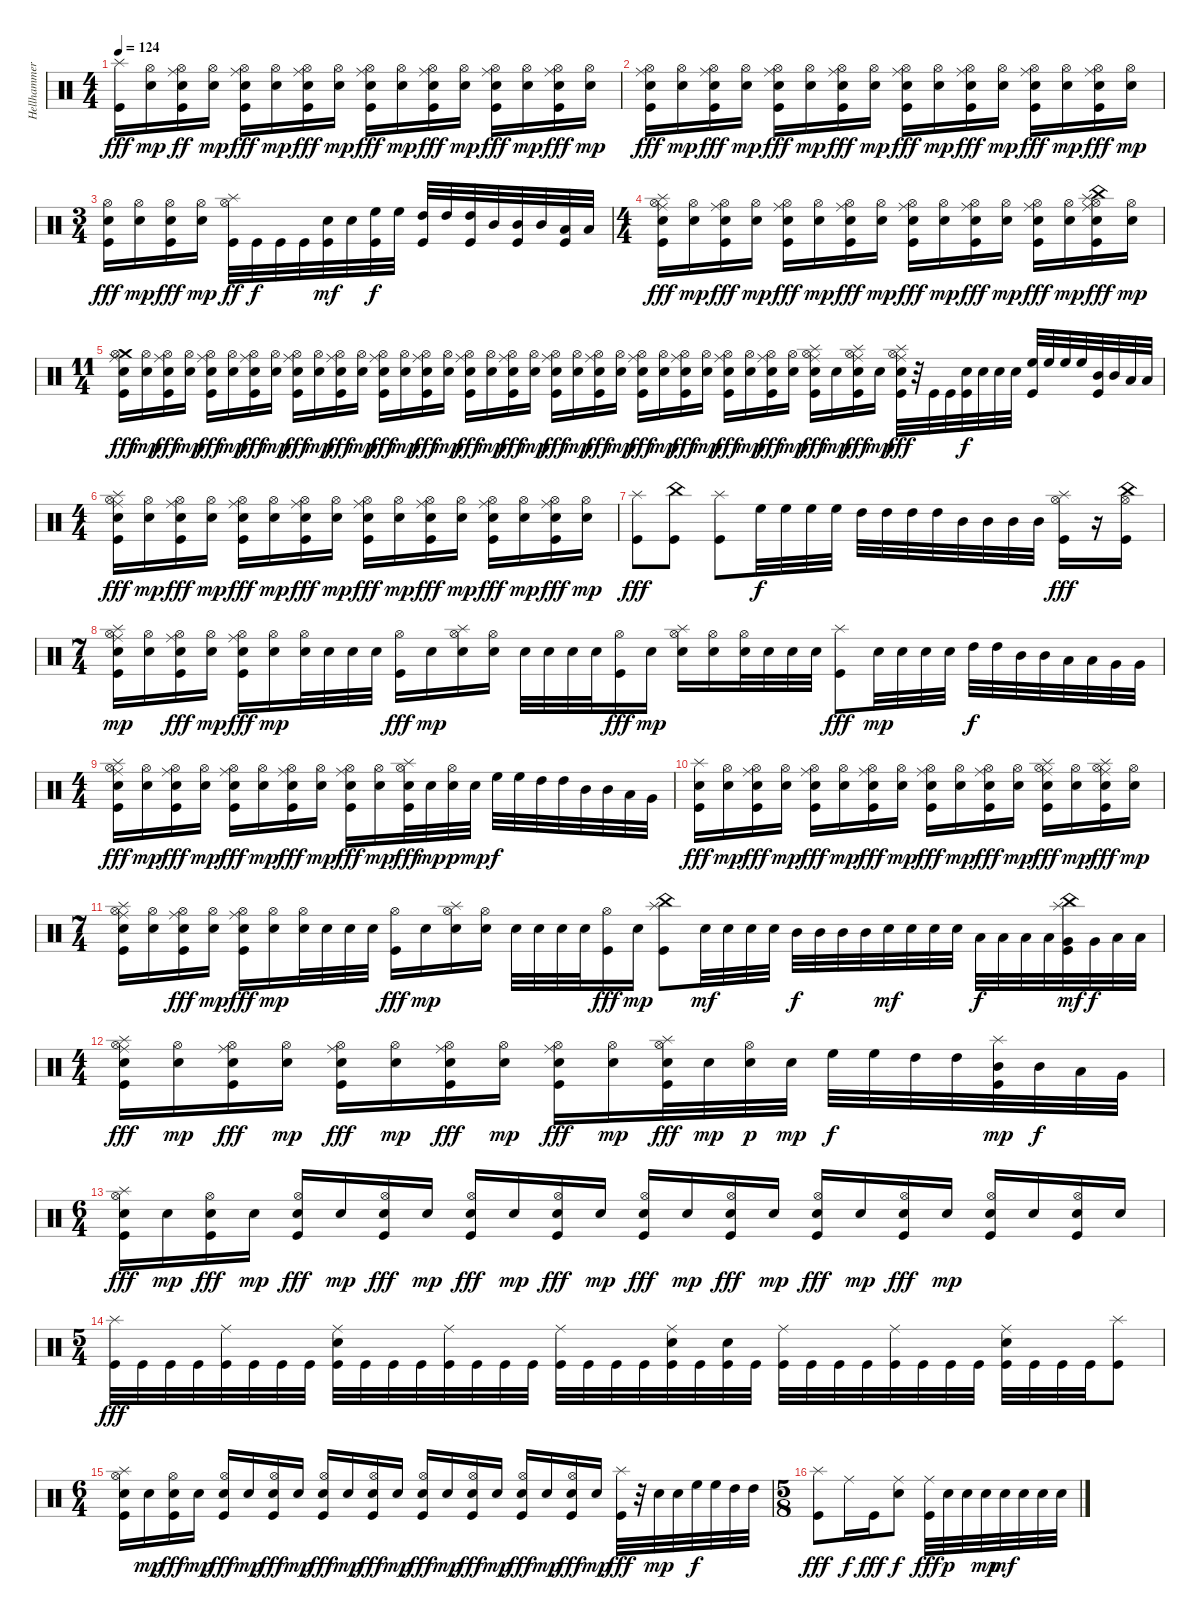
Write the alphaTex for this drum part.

\track ("Hellhammer" "Hellhammer") {instrument percussion}
\staff {score}
\articulation defaults
\ts (4 4)
\tempo 124
\clef neutral
\ks c
("Splash (hit)" "Kick (hit)").16{dy fff} ("Hi-Hat (open)" "Electric Snare (hit)").16{dy mp} ("Ride (middle)" "Hi-Hat (open)" "Electric Snare (hit)" "Kick (hit)").16{dy ff} ("Hi-Hat (open)" "Electric Snare (hit)").16{dy mp} ("Ride (middle)" "Hi-Hat (open)" "Electric Snare (hit)" "Kick (hit)").16{dy fff} ("Hi-Hat (open)" "Electric Snare (hit)").16{dy mp} ("Ride (middle)" "Hi-Hat (open)" "Electric Snare (hit)" "Kick (hit)").16{dy fff} ("Hi-Hat (open)" "Electric Snare (hit)").16{dy mp} ("Ride (middle)" "Hi-Hat (open)" "Electric Snare (hit)" "Kick (hit)").16{dy fff} ("Hi-Hat (open)" "Electric Snare (hit)").16{dy mp} ("Ride (middle)" "Hi-Hat (open)" "Electric Snare (hit)" "Kick (hit)").16{dy fff} ("Hi-Hat (open)" "Electric Snare (hit)").16{dy mp} ("Ride (middle)" "Hi-Hat (open)" "Electric Snare (hit)" "Kick (hit)").16{dy fff} ("Hi-Hat (open)" "Electric Snare (hit)").16{dy mp} ("Ride (middle)" "Hi-Hat (open)" "Electric Snare (hit)" "Kick (hit)").16{dy fff} ("Hi-Hat (open)" "Electric Snare (hit)").16{dy mp} |
("Ride (middle)" "Hi-Hat (open)" "Electric Snare (hit)" "Kick (hit)").16{dy fff} ("Hi-Hat (open)" "Electric Snare (hit)").16{dy mp} ("Ride (middle)" "Hi-Hat (open)" "Electric Snare (hit)" "Kick (hit)").16{dy fff} ("Hi-Hat (open)" "Electric Snare (hit)").16{dy mp} ("Ride (middle)" "Hi-Hat (open)" "Electric Snare (hit)" "Kick (hit)").16{dy fff} ("Hi-Hat (open)" "Electric Snare (hit)").16{dy mp} ("Ride (middle)" "Hi-Hat (open)" "Electric Snare (hit)" "Kick (hit)").16{dy fff} ("Hi-Hat (open)" "Electric Snare (hit)").16{dy mp} ("Ride (middle)" "Hi-Hat (open)" "Electric Snare (hit)" "Kick (hit)").16{dy fff} ("Hi-Hat (open)" "Electric Snare (hit)").16{dy mp} ("Ride (middle)" "Hi-Hat (open)" "Electric Snare (hit)" "Kick (hit)").16{dy fff} ("Hi-Hat (open)" "Electric Snare (hit)").16{dy mp} ("Ride (middle)" "Hi-Hat (open)" "Electric Snare (hit)" "Kick (hit)").16{dy fff} ("Hi-Hat (open)" "Electric Snare (hit)").16{dy mp} ("Ride (middle)" "Hi-Hat (open)" "Electric Snare (hit)" "Kick (hit)").16{dy fff} ("Hi-Hat (open)" "Electric Snare (hit)").16{dy mp} |
\ts (3 4)
("Hi-Hat (open)" "Electric Snare (hit)" "Kick (hit)").16{dy fff} ("Hi-Hat (open)" "Electric Snare (hit)").16{dy mp} ("Hi-Hat (open)" "Electric Snare (hit)" "Kick (hit)").16{dy fff} ("Hi-Hat (open)" "Electric Snare (hit)").16{dy mp} ("Splash (hit)" "Hi-Hat (open)" "Kick (hit)").32{dy ff} "Kick (hit)".32{dy f} "Kick (hit)".32 "Kick (hit)".32 ("Electric Snare (hit)" "Kick (hit)").32{dy mf} "Electric Snare (hit)".32 ("High Floor Tom (hit)" "Kick (hit)").32{dy f} "High Floor Tom (hit)".32 ("High Tom (hit)" "Kick (hit)").32 "High Tom (hit)".32 ("High Tom (hit)" "Kick (hit)").32 "Mid Tom (hit)".32 ("Mid Tom (hit)" "Kick (hit)").32 "Mid Tom (hit)".32 ("Low Tom (hit)" "Kick (hit)").32 "Low Tom (hit)".32 |
\ts (4 4)
("Splash (hit)" "Ride (middle)" "Hi-Hat (open)" "Electric Snare (hit)" "Kick (hit)").16{dy fff} ("Hi-Hat (open)" "Electric Snare (hit)").16{dy mp} ("Ride (middle)" "Hi-Hat (open)" "Electric Snare (hit)" "Kick (hit)").16{dy fff} ("Hi-Hat (open)" "Electric Snare (hit)").16{dy mp} ("Ride (middle)" "Hi-Hat (open)" "Electric Snare (hit)" "Kick (hit)").16{dy fff} ("Hi-Hat (open)" "Electric Snare (hit)").16{dy mp} ("Ride (middle)" "Hi-Hat (open)" "Electric Snare (hit)" "Kick (hit)").16{dy fff} ("Hi-Hat (open)" "Electric Snare (hit)").16{dy mp} ("Ride (middle)" "Hi-Hat (open)" "Electric Snare (hit)" "Kick (hit)").16{dy fff} ("Hi-Hat (open)" "Electric Snare (hit)").16{dy mp} ("Ride (middle)" "Hi-Hat (open)" "Electric Snare (hit)" "Kick (hit)").16{dy fff} ("Hi-Hat (open)" "Electric Snare (hit)").16{dy mp} ("Ride (middle)" "Hi-Hat (open)" "Electric Snare (hit)" "Kick (hit)").16{dy fff} ("Hi-Hat (open)" "Electric Snare (hit)").16{dy mp} ("Splash (hit)" "China (hit)" "Ride (middle)" "Hi-Hat (open)" "Electric Snare (hit)" "Kick (hit)").16{dy fff} ("Hi-Hat (open)" "Electric Snare (hit)").16{dy mp} |
\ts (11 4)
("Crash medium (hit)" "Ride (middle)" "Hi-Hat (open)" "Electric Snare (hit)" "Kick (hit)").16{dy fff} ("Hi-Hat (open)" "Electric Snare (hit)").16{dy mp} ("Ride (middle)" "Hi-Hat (open)" "Electric Snare (hit)" "Kick (hit)").16{dy fff} ("Hi-Hat (open)" "Electric Snare (hit)").16{dy mp} ("Ride (middle)" "Hi-Hat (open)" "Electric Snare (hit)" "Kick (hit)").16{dy fff} ("Hi-Hat (open)" "Electric Snare (hit)").16{dy mp} ("Ride (middle)" "Hi-Hat (open)" "Electric Snare (hit)" "Kick (hit)").16{dy fff} ("Hi-Hat (open)" "Electric Snare (hit)").16{dy mp} ("Ride (middle)" "Hi-Hat (open)" "Electric Snare (hit)" "Kick (hit)").16{dy fff} ("Hi-Hat (open)" "Electric Snare (hit)").16{dy mp} ("Ride (middle)" "Hi-Hat (open)" "Electric Snare (hit)" "Kick (hit)").16{dy fff} ("Hi-Hat (open)" "Electric Snare (hit)").16{dy mp} ("Ride (middle)" "Hi-Hat (open)" "Electric Snare (hit)" "Kick (hit)").16{dy fff} ("Hi-Hat (open)" "Electric Snare (hit)").16{dy mp} ("Ride (middle)" "Hi-Hat (open)" "Electric Snare (hit)" "Kick (hit)").16{dy fff} ("Hi-Hat (open)" "Electric Snare (hit)").16{dy mp} ("Ride (middle)" "Hi-Hat (open)" "Electric Snare (hit)" "Kick (hit)").16{dy fff} ("Hi-Hat (open)" "Electric Snare (hit)").16{dy mp} ("Ride (middle)" "Hi-Hat (open)" "Electric Snare (hit)" "Kick (hit)").16{dy fff} ("Hi-Hat (open)" "Electric Snare (hit)").16{dy mp} ("Ride (middle)" "Hi-Hat (open)" "Electric Snare (hit)" "Kick (hit)").16{dy fff} ("Hi-Hat (open)" "Electric Snare (hit)").16{dy mp} ("Ride (middle)" "Hi-Hat (open)" "Electric Snare (hit)" "Kick (hit)").16{dy fff} ("Hi-Hat (open)" "Electric Snare (hit)").16{dy mp} ("Ride (middle)" "Hi-Hat (open)" "Electric Snare (hit)" "Kick (hit)").16{dy fff} ("Hi-Hat (open)" "Electric Snare (hit)").16{dy mp} ("Ride (middle)" "Hi-Hat (open)" "Electric Snare (hit)" "Kick (hit)").16{dy fff} ("Hi-Hat (open)" "Electric Snare (hit)").16{dy mp} ("Ride (middle)" "Hi-Hat (open)" "Electric Snare (hit)" "Kick (hit)").16{dy fff} ("Hi-Hat (open)" "Electric Snare (hit)").16{dy mp} ("Ride (middle)" "Hi-Hat (open)" "Electric Snare (hit)" "Kick (hit)").16{dy fff} ("Hi-Hat (open)" "Electric Snare (hit)").16{dy mp} ("Splash (hit)" "Ride (middle)" "Hi-Hat (open)" "Electric Snare (hit)" "Kick (hit)").16{dy fff} "Electric Snare (hit)".16{dy mp} ("Splash (hit)" "Ride (middle)" "Hi-Hat (open)" "Electric Snare (hit)" "Kick (hit)").16{dy fff} "Electric Snare (hit)".16{dy mp} ("Splash (hit)" "Ride (middle)" "Hi-Hat (open)" "Electric Snare (hit)" "Kick (hit)").32{dy fff} r.32 "Kick (hit)".32 "Kick (hit)".32 ("Electric Snare (hit)" "Kick (hit)").32{dy f} "Electric Snare (hit)".32 "Electric Snare (hit)".32 "Electric Snare (hit)".32 ("High Floor Tom (hit)" "Kick (hit)").32 "High Floor Tom (hit)".32 "High Floor Tom (hit)".32 "High Floor Tom (hit)".32 ("Mid Tom (hit)" "Kick (hit)").32 "Mid Tom (hit)".32 "Low Tom (hit)".32 "Low Tom (hit)".32 |
\ts (4 4)
("Splash (hit)" "Ride (middle)" "Hi-Hat (open)" "Electric Snare (hit)" "Kick (hit)").16{dy fff} ("Hi-Hat (open)" "Electric Snare (hit)").16{dy mp} ("Ride (middle)" "Hi-Hat (open)" "Electric Snare (hit)" "Kick (hit)").16{dy fff} ("Hi-Hat (open)" "Electric Snare (hit)").16{dy mp} ("Ride (middle)" "Hi-Hat (open)" "Electric Snare (hit)" "Kick (hit)").16{dy fff} ("Hi-Hat (open)" "Electric Snare (hit)").16{dy mp} ("Ride (middle)" "Hi-Hat (open)" "Electric Snare (hit)" "Kick (hit)").16{dy fff} ("Hi-Hat (open)" "Electric Snare (hit)").16{dy mp} ("Ride (middle)" "Hi-Hat (open)" "Electric Snare (hit)" "Kick (hit)").16{dy fff} ("Hi-Hat (open)" "Electric Snare (hit)").16{dy mp} ("Ride (middle)" "Hi-Hat (open)" "Electric Snare (hit)" "Kick (hit)").16{dy fff} ("Hi-Hat (open)" "Electric Snare (hit)").16{dy mp} ("Ride (middle)" "Hi-Hat (open)" "Electric Snare (hit)" "Kick (hit)").16{dy fff} ("Hi-Hat (open)" "Electric Snare (hit)").16{dy mp} ("Ride (middle)" "Hi-Hat (open)" "Electric Snare (hit)" "Kick (hit)").16{dy fff} ("Hi-Hat (open)" "Electric Snare (hit)").16{dy mp} |
("Splash (hit)" "Kick (hit)").8{dy fff} ("China (hit)" "Kick (hit)").8 ("Splash (hit)" "Kick (hit)").8 "High Floor Tom (hit)".32{dy f} "High Floor Tom (hit)".32 "High Floor Tom (hit)".32 "High Floor Tom (hit)".32 "High Tom (hit)".32 "High Tom (hit)".32 "High Tom (hit)".32 "High Tom (hit)".32 "Mid Tom (hit)".32 "Mid Tom (hit)".32 "Mid Tom (hit)".32 "Mid Tom (hit)".32 ("Splash (hit)" "Hi-Hat (open)" "Kick (hit)").16{dy fff} r.16 ("China (hit)" "Hi-Hat (open)" "Kick (hit)").16 |
\ts (7 4)
("Splash (hit)" "Ride (middle)" "Hi-Hat (open)" "Electric Snare (hit)" "Kick (hit)").16{dy mp} ("Hi-Hat (open)" "Electric Snare (hit)").16 ("Ride (middle)" "Hi-Hat (open)" "Electric Snare (hit)" "Kick (hit)").16{dy fff} ("Hi-Hat (open)" "Electric Snare (hit)").16{dy mp} ("Ride (middle)" "Hi-Hat (open)" "Electric Snare (hit)" "Kick (hit)").16{dy fff} ("Hi-Hat (open)" "Electric Snare (hit)").16{dy mp} ("Hi-Hat (open)" "Electric Snare (hit)").32 "Electric Snare (hit)".32 "Electric Snare (hit)".32 "Electric Snare (hit)".32 ("Hi-Hat (open)" "Kick (hit)").16{dy fff} "Electric Snare (hit)".16{dy mp} ("Splash (hit)" "Hi-Hat (open)" "Electric Snare (hit)").16 ("Hi-Hat (open)" "Electric Snare (hit)").16 "Electric Snare (hit)".32 "Electric Snare (hit)".32 "Electric Snare (hit)".32 "Electric Snare (hit)".32 ("Hi-Hat (open)" "Kick (hit)").16{dy fff} "Electric Snare (hit)".16{dy mp} ("Splash (hit)" "Hi-Hat (open)" "Electric Snare (hit)").16 ("Hi-Hat (open)" "Electric Snare (hit)").16 ("Hi-Hat (open)" "Electric Snare (hit)").32 "Electric Snare (hit)".32 "Electric Snare (hit)".32 "Electric Snare (hit)".32 ("Splash (hit)" "Kick (hit)").8{dy fff} "Snare (hit) 2".32{dy mp} "Snare (hit) 2".32 "Snare (hit) 2".32 "Snare (hit) 2".32 "High Tom (hit)".32{dy f} "High Tom (hit)".32 "Mid Tom (hit)".32 "Mid Tom (hit)".32 "Low Tom (hit)".32 "Low Tom (hit)".32 "Very Low Tom (hit)".32 "Very Low Tom (hit)".32 |
\ts (4 4)
("Splash (hit)" "Ride (middle)" "Hi-Hat (open)" "Electric Snare (hit)" "Kick (hit)").16{dy fff} ("Hi-Hat (open)" "Electric Snare (hit)").16{dy mp} ("Ride (middle)" "Hi-Hat (open)" "Electric Snare (hit)" "Kick (hit)").16{dy fff} ("Hi-Hat (open)" "Electric Snare (hit)").16{dy mp} ("Ride (middle)" "Hi-Hat (open)" "Electric Snare (hit)" "Kick (hit)").16{dy fff} ("Hi-Hat (open)" "Electric Snare (hit)").16{dy mp} ("Ride (middle)" "Hi-Hat (open)" "Electric Snare (hit)" "Kick (hit)").16{dy fff} ("Hi-Hat (open)" "Electric Snare (hit)").16{dy mp} ("Ride (middle)" "Hi-Hat (open)" "Electric Snare (hit)" "Kick (hit)").16{dy fff} ("Hi-Hat (open)" "Electric Snare (hit)").16{dy mp} ("Splash (hit)" "Hi-Hat (open)" "Electric Snare (hit)" "Kick (hit)").32{dy fff} "Electric Snare (hit)".32{dy mp} ("Hi-Hat (open)" "Electric Snare (hit)").32{dy p} "Electric Snare (hit)".32{dy mp} "High Floor Tom (hit)".32{dy f} "High Floor Tom (hit)".32 "High Tom (hit)".32 "High Tom (hit)".32 "Mid Tom (hit)".32 "Mid Tom (hit)".32 "Low Tom (hit)".32 "Very Low Tom (hit)".32 |
("Splash (hit)" "Electric Snare (hit)" "Kick (hit)").16{dy fff} ("Hi-Hat (open)" "Electric Snare (hit)").16{dy mp} ("Ride (middle)" "Hi-Hat (open)" "Electric Snare (hit)" "Kick (hit)").16{dy fff} ("Hi-Hat (open)" "Electric Snare (hit)").16{dy mp} ("Ride (middle)" "Hi-Hat (open)" "Electric Snare (hit)" "Kick (hit)").16{dy fff} ("Hi-Hat (open)" "Electric Snare (hit)").16{dy mp} ("Ride (middle)" "Hi-Hat (open)" "Electric Snare (hit)" "Kick (hit)").16{dy fff} ("Hi-Hat (open)" "Electric Snare (hit)").16{dy mp} ("Ride (middle)" "Hi-Hat (open)" "Electric Snare (hit)" "Kick (hit)").16{dy fff} ("Hi-Hat (open)" "Electric Snare (hit)").16{dy mp} ("Ride (middle)" "Hi-Hat (open)" "Electric Snare (hit)" "Kick (hit)").16{dy fff} ("Hi-Hat (open)" "Electric Snare (hit)").16{dy mp} ("Splash (hit)" "Ride (middle)" "Hi-Hat (open)" "Electric Snare (hit)" "Kick (hit)").16{dy fff} ("Hi-Hat (open)" "Electric Snare (hit)").16{dy mp} ("Splash (hit)" "Ride (middle)" "Hi-Hat (open)" "Electric Snare (hit)" "Kick (hit)").16{dy fff} ("Hi-Hat (open)" "Electric Snare (hit)").16{dy mp} |
\ts (7 4)
("Splash (hit)" "Ride (middle)" "Hi-Hat (open)" "Electric Snare (hit)" "Kick (hit)").16 ("Hi-Hat (open)" "Electric Snare (hit)").16 ("Ride (middle)" "Hi-Hat (open)" "Electric Snare (hit)" "Kick (hit)").16{dy fff} ("Hi-Hat (open)" "Electric Snare (hit)").16{dy mp} ("Ride (middle)" "Hi-Hat (open)" "Electric Snare (hit)" "Kick (hit)").16{dy fff} ("Hi-Hat (open)" "Electric Snare (hit)").16{dy mp} ("Hi-Hat (open)" "Electric Snare (hit)").32 "Electric Snare (hit)".32 "Electric Snare (hit)".32 "Electric Snare (hit)".32 ("Hi-Hat (open)" "Kick (hit)").16{dy fff} "Electric Snare (hit)".16{dy mp} ("Splash (hit)" "Hi-Hat (open)" "Electric Snare (hit)").16 ("Hi-Hat (open)" "Electric Snare (hit)").16 "Electric Snare (hit)".32 "Electric Snare (hit)".32 "Electric Snare (hit)".32 "Electric Snare (hit)".32 ("Hi-Hat (open)" "Kick (hit)").16{dy fff} "Electric Snare (hit)".16{dy mp} ("Splash (hit)" "China (hit)" "Kick (hit)").8 "Snare (hit) 2".32{dy mf} "Snare (hit) 2".32 "Snare (hit) 2".32 "Snare (hit) 2".32 "Mid Tom (hit)".32{dy f} "Mid Tom (hit)".32 "Mid Tom (hit)".32 "Mid Tom (hit)".32 "Snare (hit) 2".32{dy mf} "Snare (hit) 2".32 "Snare (hit) 2".32 "Snare (hit) 2".32 "Low Tom (hit)".32{dy f} "Low Tom (hit)".32 "Low Tom (hit)".32 "Low Tom (hit)".32 ("Splash (hit)" "China (hit)" "Very Low Tom (hit)" "Kick (hit)").32{dy mf} "Very Low Tom (hit)".32{dy f} "Low Floor Tom (hit)".32 "Low Floor Tom (hit)".32 |
\ts (4 4)
("Splash (hit)" "Ride (middle)" "Hi-Hat (open)" "Electric Snare (hit)" "Kick (hit)").16{dy fff} ("Hi-Hat (open)" "Electric Snare (hit)").16{dy mp} ("Ride (middle)" "Hi-Hat (open)" "Electric Snare (hit)" "Kick (hit)").16{dy fff} ("Hi-Hat (open)" "Electric Snare (hit)").16{dy mp} ("Ride (middle)" "Hi-Hat (open)" "Electric Snare (hit)" "Kick (hit)").16{dy fff} ("Hi-Hat (open)" "Electric Snare (hit)").16{dy mp} ("Ride (middle)" "Hi-Hat (open)" "Electric Snare (hit)" "Kick (hit)").16{dy fff} ("Hi-Hat (open)" "Electric Snare (hit)").16{dy mp} ("Ride (middle)" "Hi-Hat (open)" "Electric Snare (hit)" "Kick (hit)").16{dy fff} ("Hi-Hat (open)" "Electric Snare (hit)").16{dy mp} ("Splash (hit)" "Hi-Hat (open)" "Electric Snare (hit)" "Kick (hit)").32{dy fff} "Electric Snare (hit)".32{dy mp} ("Hi-Hat (open)" "Electric Snare (hit)").32{dy p} "Electric Snare (hit)".32{dy mp} "High Floor Tom (hit)".32{dy f} "High Floor Tom (hit)".32 "High Tom (hit)".32 "High Tom (hit)".32 ("Splash (hit)" "Mid Tom (hit)" "Kick (hit)").32{dy mp} "Mid Tom (hit)".32{dy f} "Low Tom (hit)".32 "Very Low Tom (hit)".32 |
\ts (6 4)
("Splash (hit)" "Hi-Hat (open)" "Electric Snare (hit)" "Kick (hit)").16{dy fff} "Electric Snare (hit)".16{dy mp} ("Hi-Hat (open)" "Electric Snare (hit)" "Kick (hit)").16{dy fff} "Electric Snare (hit)".16{dy mp} ("Hi-Hat (open)" "Electric Snare (hit)" "Kick (hit)").16{dy fff} "Electric Snare (hit)".16{dy mp} ("Hi-Hat (open)" "Electric Snare (hit)" "Kick (hit)").16{dy fff} "Electric Snare (hit)".16{dy mp} ("Hi-Hat (open)" "Electric Snare (hit)" "Kick (hit)").16{dy fff} "Electric Snare (hit)".16{dy mp} ("Hi-Hat (open)" "Electric Snare (hit)" "Kick (hit)").16{dy fff} "Electric Snare (hit)".16{dy mp} ("Hi-Hat (open)" "Electric Snare (hit)" "Kick (hit)").16{dy fff} "Electric Snare (hit)".16{dy mp} ("Hi-Hat (open)" "Electric Snare (hit)" "Kick (hit)").16{dy fff} "Electric Snare (hit)".16{dy mp} ("Hi-Hat (open)" "Electric Snare (hit)" "Kick (hit)").16{dy fff} "Electric Snare (hit)".16{dy mp} ("Hi-Hat (open)" "Electric Snare (hit)" "Kick (hit)").16{dy fff} "Electric Snare (hit)".16{dy mp} ("Hi-Hat (open)" "Electric Snare (hit)" "Kick (hit)").16 "Electric Snare (hit)".16 ("Hi-Hat (open)" "Electric Snare (hit)" "Kick (hit)").16 "Electric Snare (hit)".16 |
\ts (5 4)
("Splash (hit)" "Kick (hit)").32{dy fff} "Kick (hit)".32 "Kick (hit)".32 "Kick (hit)".32 ("Ride (middle)" "Kick (hit)").32 "Kick (hit)".32 "Kick (hit)".32 "Kick (hit)".32 ("Ride (middle)" "Electric Snare (hit)" "Kick (hit)").32 "Kick (hit)".32 "Kick (hit)".32 "Kick (hit)".32 ("Ride (middle)" "Kick (hit)").32 "Kick (hit)".32 "Kick (hit)".32 "Kick (hit)".32 ("Ride (middle)" "Kick (hit)").32 "Kick (hit)".32 "Kick (hit)".32 "Kick (hit)".32 ("Ride (middle)" "Electric Snare (hit)" "Kick (hit)").32 "Kick (hit)".32 ("Electric Snare (hit)" "Kick (hit)").32 "Kick (hit)".32 ("Ride (middle)" "Kick (hit)").32 "Kick (hit)".32 "Kick (hit)".32 "Kick (hit)".32 ("Ride (middle)" "Kick (hit)").32 "Kick (hit)".32 "Kick (hit)".32 "Kick (hit)".32 ("Ride (middle)" "Electric Snare (hit)" "Kick (hit)").32 "Kick (hit)".32 "Kick (hit)".32 "Kick (hit)".32 ("Splash (hit)" "Kick (hit)").8 |
\ts (6 4)
("Splash (hit)" "Hi-Hat (open)" "Electric Snare (hit)" "Kick (hit)").16 "Electric Snare (hit)".16{dy mp} ("Hi-Hat (open)" "Electric Snare (hit)" "Kick (hit)").16{dy fff} "Electric Snare (hit)".16{dy mp} ("Hi-Hat (open)" "Electric Snare (hit)" "Kick (hit)").16{dy fff} "Electric Snare (hit)".16{dy mp} ("Hi-Hat (open)" "Electric Snare (hit)" "Kick (hit)").16{dy fff} "Electric Snare (hit)".16{dy mp} ("Hi-Hat (open)" "Electric Snare (hit)" "Kick (hit)").16{dy fff} "Electric Snare (hit)".16{dy mp} ("Hi-Hat (open)" "Electric Snare (hit)" "Kick (hit)").16{dy fff} "Electric Snare (hit)".16{dy mp} ("Hi-Hat (open)" "Electric Snare (hit)" "Kick (hit)").16{dy fff} "Electric Snare (hit)".16{dy mp} ("Hi-Hat (open)" "Electric Snare (hit)" "Kick (hit)").16{dy fff} "Electric Snare (hit)".16{dy mp} ("Hi-Hat (open)" "Electric Snare (hit)" "Kick (hit)").16{dy fff} "Electric Snare (hit)".16{dy mp} ("Hi-Hat (open)" "Electric Snare (hit)" "Kick (hit)").16{dy fff} "Electric Snare (hit)".16{dy mp} ("Splash (hit)" "Kick (hit)").32{dy fff} r.32 "Electric Snare (hit)".32{dy mp} "Electric Snare (hit)".32 "High Floor Tom (hit)".32{dy f} "High Floor Tom (hit)".32 "High Tom (hit)".32 "High Tom (hit)".32 |
\ts (5 8)
("Splash (hit)" "Kick (hit)").8{dy fff} "Ride (middle)".16{dy f} "Kick (hit)".16{dy fff} ("Ride (middle)" "Electric Snare (hit)").8{dy f} ("Ride (middle)" "Kick (hit)").32{dy fff} "Electric Snare (hit)".32{dy p} "Electric Snare (hit)".32 "Electric Snare (hit)".32{dy mp} "Snare (hit) 2".32{dy mf} "Snare (hit) 2".32 "Snare (hit) 2".32 "Snare (hit) 2".32
